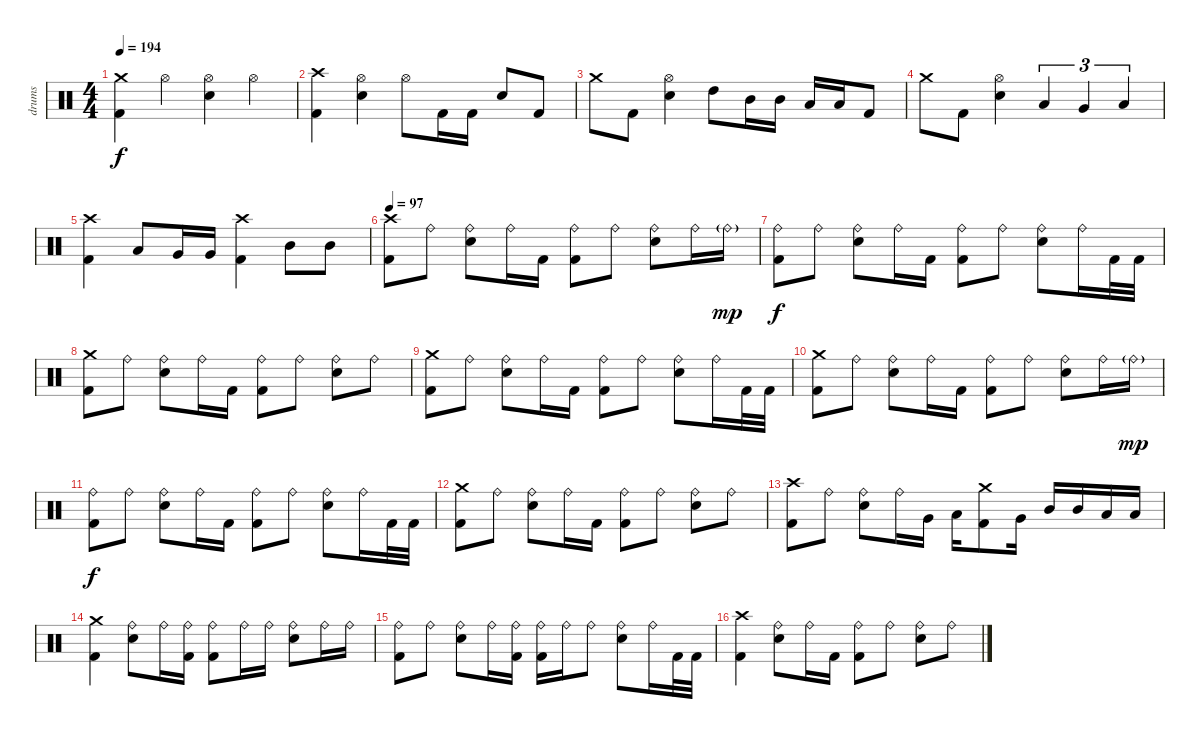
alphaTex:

\track ("drums" "drums") {instrument percussion}
\staff {score}
\articulation defaults
\ts (4 4)
\tempo 194
\clef neutral
\ks c
("Crash medium (hit)" "Kick (hit) 2").4{dy f} "Hi-Hat (open)".4 ("Hi-Hat (open)" "Electric Snare (hit)").4 "Hi-Hat (open)".4 |
("Crash high (hit)" "Kick (hit) 2").4 ("Hi-Hat (open)" "Electric Snare (hit)").4 "Hi-Hat (open)".8 "Kick (hit) 2".16 "Kick (hit) 2".16 "Electric Snare (hit)".8 "Kick (hit) 2".8 |
"Crash medium (hit)".8 "Kick (hit) 2".8 ("Hi-Hat (open)" "Electric Snare (hit)").4 "High Tom (hit)".8 "Mid Tom (hit)".16 "Mid Tom (hit)".16 "Low Tom (hit)".16 "Low Tom (hit)".16 "Kick (hit) 2".8 |
"Crash medium (hit)".8 "Kick (hit) 2".8 ("Hi-Hat (open)" "Electric Snare (hit)").4 "Low Tom (hit)".4{tu (3 2)} "Very Low Tom (hit)".4{tu (3 2)} "Low Floor Tom (hit)".4{tu (3 2)} |
("Crash high (hit)" "Kick (hit) 2").4 "Low Tom (hit)".8 "Very Low Tom (hit)".16 "Very Low Tom (hit)".16 ("Crash high (hit)" "Kick (hit) 2").4 "Mid Tom (hit)".8 "Mid Tom (hit)".8 |
\tempo 97
("Crash high (hit)" "Kick (hit) 2").8 "Ride (bell)".8 ("Ride (bell)" "Electric Snare (hit)").8 "Ride (bell)".16 "Kick (hit) 2".16 ("Ride (bell)" "Kick (hit) 2").8 "Ride (bell)".8 ("Ride (bell)" "Electric Snare (hit)").8 "Ride (bell)".16 "Ride (bell)"{g}.16{dy mp} |
("Ride (bell)" "Kick (hit) 2").8{dy f} "Ride (bell)".8 ("Ride (bell)" "Electric Snare (hit)").8 "Ride (bell)".16 "Kick (hit) 2".16 ("Ride (bell)" "Kick (hit) 2").8 "Ride (bell)".8 ("Ride (bell)" "Electric Snare (hit)").8 "Ride (bell)".16 "Kick (hit) 2".32 "Kick (hit) 2".32 |
("Crash medium (hit)" "Kick (hit) 2").8 "Ride (bell)".8 ("Ride (bell)" "Electric Snare (hit)").8 "Ride (bell)".16 "Kick (hit) 2".16 ("Ride (bell)" "Kick (hit) 2").8 "Ride (bell)".8 ("Ride (bell)" "Electric Snare (hit)").8 "Ride (bell)".8 |
("Crash medium (hit)" "Kick (hit) 2").8 "Ride (bell)".8 ("Ride (bell)" "Electric Snare (hit)").8 "Ride (bell)".16 "Kick (hit) 2".16 ("Ride (bell)" "Kick (hit) 2").8 "Ride (bell)".8 ("Ride (bell)" "Electric Snare (hit)").8 "Ride (bell)".16 "Kick (hit) 2".32 "Kick (hit) 2".32 |
("Crash medium (hit)" "Kick (hit) 2").8 "Ride (bell)".8 ("Ride (bell)" "Electric Snare (hit)").8 "Ride (bell)".16 "Kick (hit) 2".16 ("Ride (bell)" "Kick (hit) 2").8 "Ride (bell)".8 ("Ride (bell)" "Electric Snare (hit)").8 "Ride (bell)".16 "Ride (bell)"{g}.16{dy mp} |
("Ride (bell)" "Kick (hit) 2").8{dy f} "Ride (bell)".8 ("Ride (bell)" "Electric Snare (hit)").8 "Ride (bell)".16 "Kick (hit) 2".16 ("Ride (bell)" "Kick (hit) 2").8 "Ride (bell)".8 ("Ride (bell)" "Electric Snare (hit)").8 "Ride (bell)".16 "Kick (hit) 2".32 "Kick (hit) 2".32 |
("Crash medium (hit)" "Kick (hit) 2").8 "Ride (bell)".8 ("Ride (bell)" "Electric Snare (hit)").8 "Ride (bell)".16 "Kick (hit) 2".16 ("Ride (bell)" "Kick (hit) 2").8 "Ride (bell)".8 ("Ride (bell)" "Electric Snare (hit)").8 "Ride (bell)".8 |
("Crash high (hit)" "Kick (hit) 2").8 "Ride (bell)".8 ("Ride (bell)" "Electric Snare (hit)").8 "Ride (bell)".16 "Very Low Tom (hit)".16 "Low Floor Tom (hit)".16 ("Crash medium (hit)" "Kick (hit) 2").8 "Very Low Tom (hit)".16 "Mid Tom (hit)".16 "Mid Tom (hit)".16 "Low Tom (hit)".16 "Low Tom (hit)".16 |
("Crash medium (hit)" "Kick (hit) 2").4 ("Ride (bell)" "Electric Snare (hit)").8 "Ride (bell)".16 ("Ride (bell)" "Kick (hit) 2").16 ("Ride (bell)" "Kick (hit) 2").8 "Ride (bell)".16 "Ride (bell)".16 ("Ride (bell)" "Electric Snare (hit)").8 "Ride (bell)".16 "Ride (bell)".16 |
("Ride (bell)" "Kick (hit) 2").8 "Ride (bell)".8 ("Ride (bell)" "Electric Snare (hit)").8 "Ride (bell)".16 ("Ride (bell)" "Kick (hit) 2").16 ("Ride (bell)" "Kick (hit) 2").16 "Ride (bell)".16 "Ride (bell)".8 ("Ride (bell)" "Electric Snare (hit)").8 "Ride (bell)".16 "Kick (hit) 2".32 "Kick (hit) 2".32 |
("Crash high (hit)" "Kick (hit) 2").4 ("Ride (bell)" "Electric Snare (hit)").8 "Ride (bell)".16 "Kick (hit) 2".16 ("Ride (bell)" "Kick (hit) 2").8 "Ride (bell)".8 ("Ride (bell)" "Electric Snare (hit)").8 "Ride (bell)".8
